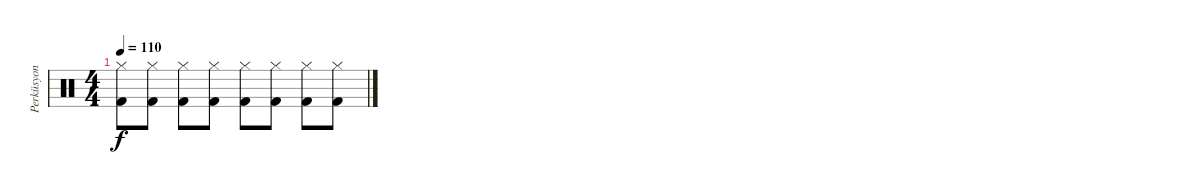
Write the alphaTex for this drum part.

\track ("Perküsyon" "Perküsyon") {instrument percussion}
\staff {score}
\articulation defaults
\ts (4 4)
\tempo 110
\clef neutral
\ks c
("Kick (hit) 2" "Hi-Hat (closed)").8{dy f volume 1} ("Kick (hit) 2" "Hi-Hat (closed)").8 ("Kick (hit) 2" "Hi-Hat (closed)").8 ("Kick (hit) 2" "Hi-Hat (closed)").8 ("Kick (hit) 2" "Hi-Hat (closed)").8{volume 0} ("Kick (hit) 2" "Hi-Hat (closed)").8 ("Kick (hit) 2" "Hi-Hat (closed)").8 ("Kick (hit) 2" "Hi-Hat (closed)").8
